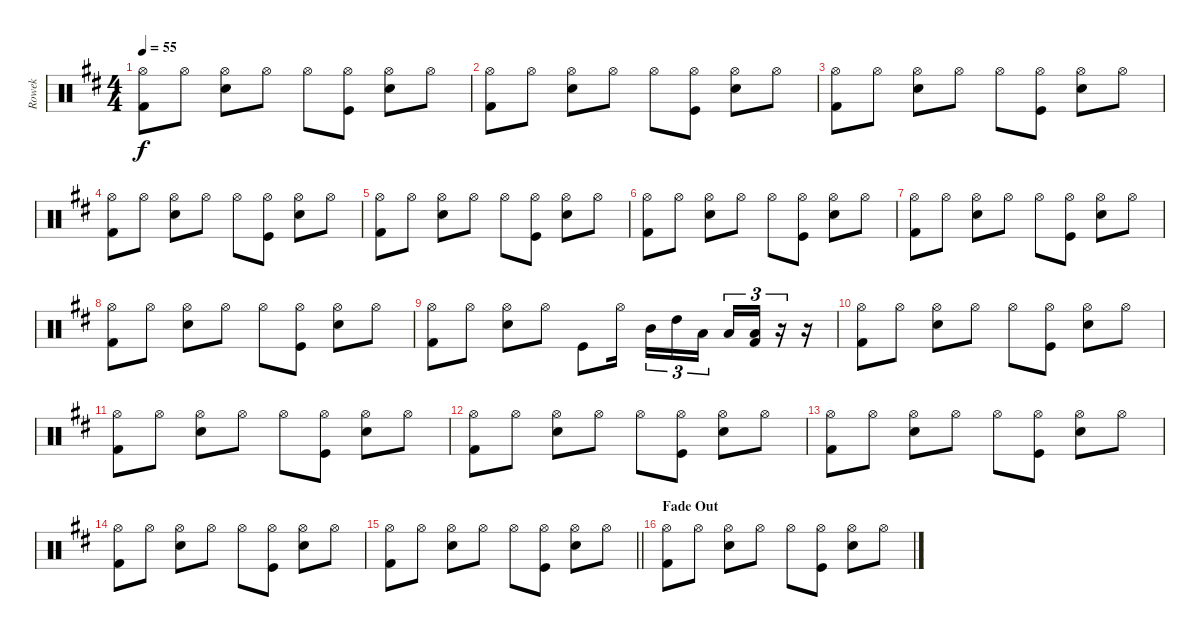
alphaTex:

\track ("Rowek" "Rowek") {instrument percussion}
\staff {score}
\articulation defaults
\ts (4 4)
\tempo 55
\clef neutral
\ks d
("Hi-Hat (open)" "Kick (hit) 2").8{dy f} "Hi-Hat (open)".8 ("Hi-Hat (open)" "Electric Snare (hit)").8 "Hi-Hat (open)".8 "Hi-Hat (open)".8 ("Hi-Hat (open)" "Kick (hit)").8 ("Hi-Hat (open)" "Snare (hit) 2").8 "Hi-Hat (open)".8 |
("Hi-Hat (open)" "Kick (hit) 2").8 "Hi-Hat (open)".8 ("Hi-Hat (open)" "Electric Snare (hit)").8 "Hi-Hat (open)".8 "Hi-Hat (open)".8 ("Hi-Hat (open)" "Kick (hit)").8 ("Hi-Hat (open)" "Snare (hit) 2").8 "Hi-Hat (open)".8 |
("Hi-Hat (open)" "Kick (hit) 2").8 "Hi-Hat (open)".8 ("Hi-Hat (open)" "Electric Snare (hit)").8 "Hi-Hat (open)".8 "Hi-Hat (open)".8 ("Hi-Hat (open)" "Kick (hit)").8 ("Hi-Hat (open)" "Snare (hit) 2").8 "Hi-Hat (open)".8 |
("Hi-Hat (open)" "Kick (hit) 2").8 "Hi-Hat (open)".8 ("Hi-Hat (open)" "Electric Snare (hit)").8 "Hi-Hat (open)".8 "Hi-Hat (open)".8 ("Hi-Hat (open)" "Kick (hit)").8 ("Hi-Hat (open)" "Snare (hit) 2").8 "Hi-Hat (open)".8 |
("Hi-Hat (open)" "Kick (hit) 2").8 "Hi-Hat (open)".8 ("Hi-Hat (open)" "Electric Snare (hit)").8 "Hi-Hat (open)".8 "Hi-Hat (open)".8 ("Hi-Hat (open)" "Kick (hit)").8 ("Hi-Hat (open)" "Snare (hit) 2").8 "Hi-Hat (open)".8 |
("Hi-Hat (open)" "Kick (hit) 2").8 "Hi-Hat (open)".8 ("Hi-Hat (open)" "Electric Snare (hit)").8 "Hi-Hat (open)".8 "Hi-Hat (open)".8 ("Hi-Hat (open)" "Kick (hit)").8 ("Hi-Hat (open)" "Snare (hit) 2").8 "Hi-Hat (open)".8 |
("Hi-Hat (open)" "Kick (hit) 2").8 "Hi-Hat (open)".8 ("Hi-Hat (open)" "Electric Snare (hit)").8 "Hi-Hat (open)".8 "Hi-Hat (open)".8 ("Hi-Hat (open)" "Kick (hit)").8 ("Hi-Hat (open)" "Snare (hit) 2").8 "Hi-Hat (open)".8 |
("Hi-Hat (open)" "Kick (hit) 2").8 "Hi-Hat (open)".8 ("Hi-Hat (open)" "Electric Snare (hit)").8 "Hi-Hat (open)".8 "Hi-Hat (open)".8 ("Hi-Hat (open)" "Kick (hit)").8 ("Hi-Hat (open)" "Snare (hit) 2").8 "Hi-Hat (open)".8 |
("Hi-Hat (open)" "Kick (hit) 2").8 "Hi-Hat (open)".8 ("Hi-Hat (open)" "Electric Snare (hit)").8 "Hi-Hat (open)".8 "Kick (hit)".8 "Hi-Hat (open)".16{beam splitsecondary} "Mid Tom (hit)".16{tu (3 2)} "High Tom (hit)".16{tu (3 2)} "Low Tom (hit)".16{tu (3 2) beam splitsecondary} "Low Floor Tom (hit)".16{tu (3 2)} ("Low Tom (hit)" "Kick (hit) 2").16{tu (3 2)} r.16{tu (3 2)} r.16 |
("Hi-Hat (open)" "Kick (hit) 2").8 "Hi-Hat (open)".8 ("Hi-Hat (open)" "Electric Snare (hit)").8 "Hi-Hat (open)".8 "Hi-Hat (open)".8 ("Hi-Hat (open)" "Kick (hit)").8 ("Hi-Hat (open)" "Snare (hit) 2").8 "Hi-Hat (open)".8 |
("Hi-Hat (open)" "Kick (hit) 2").8 "Hi-Hat (open)".8 ("Hi-Hat (open)" "Electric Snare (hit)").8 "Hi-Hat (open)".8 "Hi-Hat (open)".8 ("Hi-Hat (open)" "Kick (hit)").8 ("Hi-Hat (open)" "Snare (hit) 2").8 "Hi-Hat (open)".8 |
("Hi-Hat (open)" "Kick (hit) 2").8 "Hi-Hat (open)".8 ("Hi-Hat (open)" "Electric Snare (hit)").8 "Hi-Hat (open)".8 "Hi-Hat (open)".8 ("Hi-Hat (open)" "Kick (hit)").8 ("Hi-Hat (open)" "Snare (hit) 2").8 "Hi-Hat (open)".8 |
("Hi-Hat (open)" "Kick (hit) 2").8 "Hi-Hat (open)".8 ("Hi-Hat (open)" "Electric Snare (hit)").8 "Hi-Hat (open)".8 "Hi-Hat (open)".8 ("Hi-Hat (open)" "Kick (hit)").8 ("Hi-Hat (open)" "Snare (hit) 2").8 "Hi-Hat (open)".8 |
("Hi-Hat (open)" "Kick (hit) 2").8 "Hi-Hat (open)".8 ("Hi-Hat (open)" "Electric Snare (hit)").8 "Hi-Hat (open)".8 "Hi-Hat (open)".8 ("Hi-Hat (open)" "Kick (hit)").8 ("Hi-Hat (open)" "Snare (hit) 2").8 "Hi-Hat (open)".8 |
\barLineRight lightlight
("Hi-Hat (open)" "Kick (hit) 2").8 "Hi-Hat (open)".8 ("Hi-Hat (open)" "Electric Snare (hit)").8 "Hi-Hat (open)".8 "Hi-Hat (open)".8 ("Hi-Hat (open)" "Kick (hit)").8 ("Hi-Hat (open)" "Snare (hit) 2").8 "Hi-Hat (open)".8 |
\section ("" "Fade Out")
("Hi-Hat (open)" "Kick (hit) 2").8 "Hi-Hat (open)".8 ("Hi-Hat (open)" "Electric Snare (hit)").8 "Hi-Hat (open)".8 "Hi-Hat (open)".8 ("Hi-Hat (open)" "Kick (hit)").8 ("Hi-Hat (open)" "Snare (hit) 2").8 "Hi-Hat (open)".8
